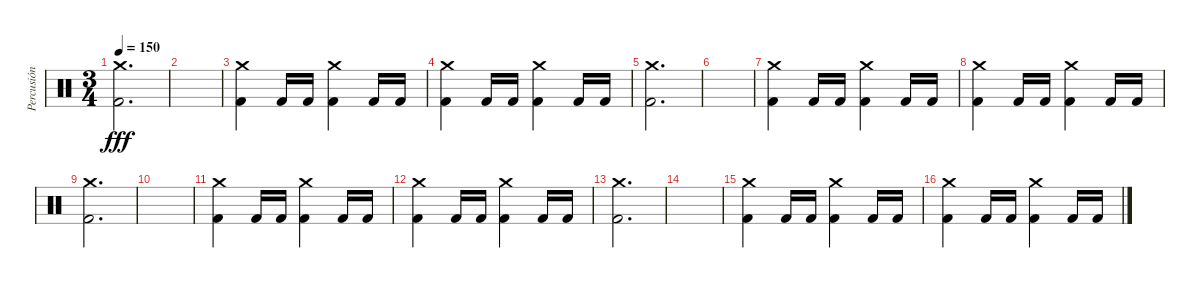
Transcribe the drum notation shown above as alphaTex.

\track ("Percusión" "Percusión") {instrument percussion}
\staff {score}
\articulation defaults
\ts (3 4)
\tempo 150
\clef neutral
\ks c
("Crash medium (hit)" "Kick (hit) 2").2{d dy fff} |
|
("Crash medium (hit)" "Kick (hit) 2").4 "Kick (hit) 2".16 "Kick (hit) 2".16 ("Crash medium (hit)" "Kick (hit) 2").4 "Kick (hit) 2".16 "Kick (hit) 2".16 |
("Crash medium (hit)" "Kick (hit) 2").4 "Kick (hit) 2".16 "Kick (hit) 2".16 ("Crash medium (hit)" "Kick (hit) 2").4 "Kick (hit) 2".16 "Kick (hit) 2".16 |
("Crash medium (hit)" "Kick (hit) 2").2{d} |
|
("Crash medium (hit)" "Kick (hit) 2").4 "Kick (hit) 2".16 "Kick (hit) 2".16 ("Crash medium (hit)" "Kick (hit) 2").4 "Kick (hit) 2".16 "Kick (hit) 2".16 |
("Crash medium (hit)" "Kick (hit) 2").4 "Kick (hit) 2".16 "Kick (hit) 2".16 ("Crash medium (hit)" "Kick (hit) 2").4 "Kick (hit) 2".16 "Kick (hit) 2".16 |
("Crash medium (hit)" "Kick (hit) 2").2{d} |
|
("Crash medium (hit)" "Kick (hit) 2").4 "Kick (hit) 2".16 "Kick (hit) 2".16 ("Crash medium (hit)" "Kick (hit) 2").4 "Kick (hit) 2".16 "Kick (hit) 2".16 |
("Crash medium (hit)" "Kick (hit) 2").4 "Kick (hit) 2".16 "Kick (hit) 2".16 ("Crash medium (hit)" "Kick (hit) 2").4 "Kick (hit) 2".16 "Kick (hit) 2".16 |
("Crash medium (hit)" "Kick (hit) 2").2{d} |
|
("Crash medium (hit)" "Kick (hit) 2").4 "Kick (hit) 2".16 "Kick (hit) 2".16 ("Crash medium (hit)" "Kick (hit) 2").4 "Kick (hit) 2".16 "Kick (hit) 2".16 |
("Crash medium (hit)" "Kick (hit) 2").4 "Kick (hit) 2".16 "Kick (hit) 2".16 ("Crash medium (hit)" "Kick (hit) 2").4 "Kick (hit) 2".16 "Kick (hit) 2".16
